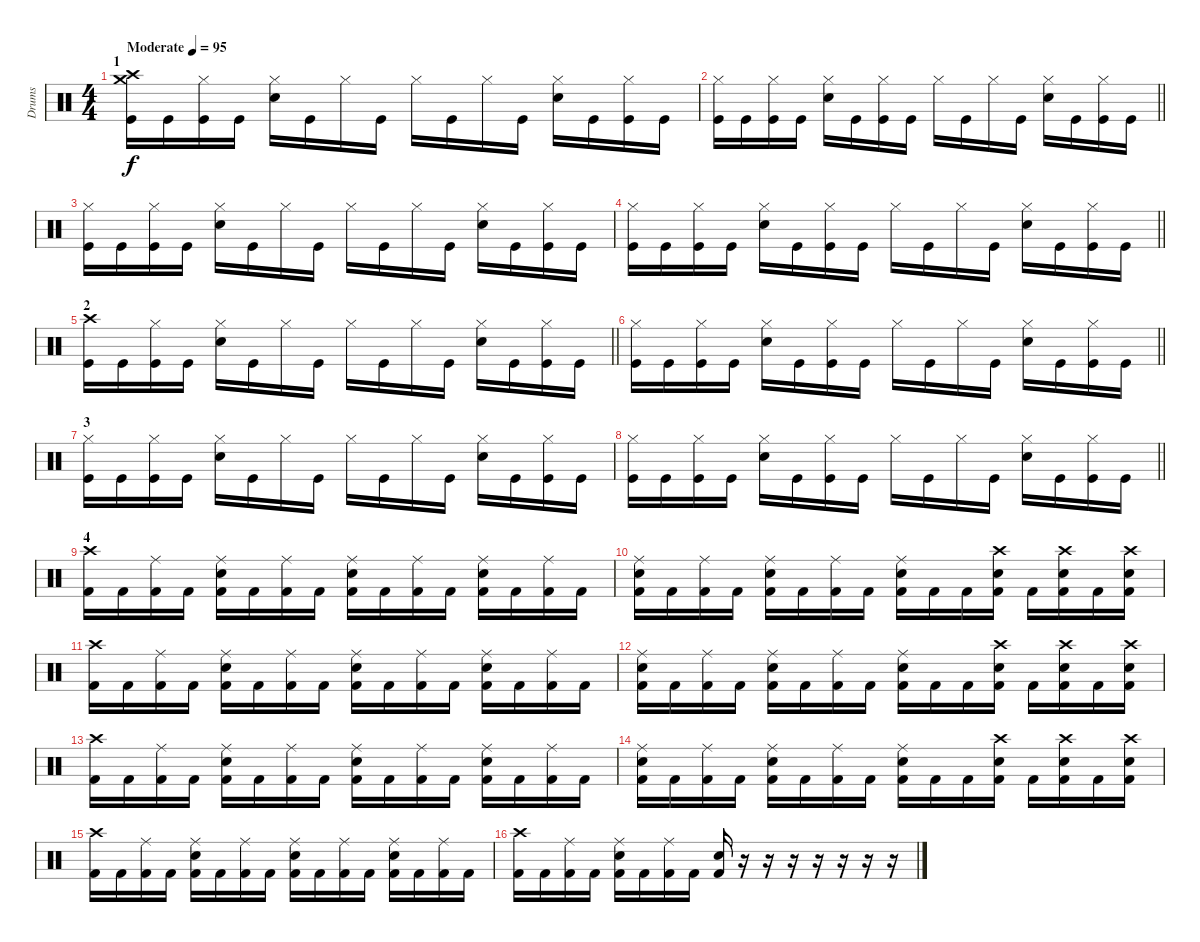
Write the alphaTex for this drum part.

\track ("Drums" "Drums") {instrument percussion}
\staff {score}
\articulation defaults
\ts (4 4)
\section ("" "1")
\tempo (95 "Moderate")
\clef neutral
\ks c
("Crash medium (hit)" "Crash high (hit)" "Kick (hit)").16{dy f} "Kick (hit)".16 ("Hi-Hat (closed)" "Kick (hit)").16 "Kick (hit)".16 ("Hi-Hat (closed)" "Snare (hit) 2").16 "Kick (hit)".16 "Hi-Hat (closed)".16 "Kick (hit)".16 "Hi-Hat (closed)".16 "Kick (hit)".16 "Hi-Hat (closed)".16 "Kick (hit)".16 ("Hi-Hat (closed)" "Snare (hit) 2").16 "Kick (hit)".16 ("Hi-Hat (closed)" "Kick (hit)").16 "Kick (hit)".16 |
\barLineRight lightlight
("Hi-Hat (closed)" "Kick (hit)").16 "Kick (hit)".16 ("Hi-Hat (closed)" "Kick (hit)").16 "Kick (hit)".16 ("Hi-Hat (closed)" "Snare (hit) 2").16 "Kick (hit)".16 ("Hi-Hat (closed)" "Kick (hit)").16 "Kick (hit)".16 "Hi-Hat (closed)".16 "Kick (hit)".16 "Hi-Hat (closed)".16 "Kick (hit)".16 ("Hi-Hat (closed)" "Snare (hit) 2").16 "Kick (hit)".16 ("Hi-Hat (closed)" "Kick (hit)").16 "Kick (hit)".16 |
("Hi-Hat (closed)" "Kick (hit)").16 "Kick (hit)".16 ("Hi-Hat (closed)" "Kick (hit)").16 "Kick (hit)".16 ("Hi-Hat (closed)" "Snare (hit) 2").16 "Kick (hit)".16 "Hi-Hat (closed)".16 "Kick (hit)".16 "Hi-Hat (closed)".16 "Kick (hit)".16 "Hi-Hat (closed)".16 "Kick (hit)".16 ("Hi-Hat (closed)" "Snare (hit) 2").16 "Kick (hit)".16 ("Hi-Hat (closed)" "Kick (hit)").16 "Kick (hit)".16 |
\barLineRight lightlight
("Hi-Hat (closed)" "Kick (hit)").16 "Kick (hit)".16 ("Hi-Hat (closed)" "Kick (hit)").16 "Kick (hit)".16 ("Hi-Hat (closed)" "Snare (hit) 2").16 "Kick (hit)".16 ("Hi-Hat (closed)" "Kick (hit)").16 "Kick (hit)".16 "Hi-Hat (closed)".16 "Kick (hit)".16 "Hi-Hat (closed)".16 "Kick (hit)".16 ("Hi-Hat (closed)" "Snare (hit) 2").16 "Kick (hit)".16 ("Hi-Hat (closed)" "Kick (hit)").16 "Kick (hit)".16 |
\section ("" "2")
\barLineRight lightlight
("Crash high (hit)" "Kick (hit)").16 "Kick (hit)".16 ("Hi-Hat (closed)" "Kick (hit)").16 "Kick (hit)".16 ("Hi-Hat (closed)" "Snare (hit) 2").16 "Kick (hit)".16 "Hi-Hat (closed)".16 "Kick (hit)".16 "Hi-Hat (closed)".16 "Kick (hit)".16 "Hi-Hat (closed)".16 "Kick (hit)".16 ("Hi-Hat (closed)" "Snare (hit) 2").16 "Kick (hit)".16 ("Hi-Hat (closed)" "Kick (hit)").16 "Kick (hit)".16 |
\barLineRight lightlight
("Hi-Hat (closed)" "Kick (hit)").16 "Kick (hit)".16 ("Hi-Hat (closed)" "Kick (hit)").16 "Kick (hit)".16 ("Hi-Hat (closed)" "Snare (hit) 2").16 "Kick (hit)".16 ("Hi-Hat (closed)" "Kick (hit)").16 "Kick (hit)".16 "Hi-Hat (closed)".16 "Kick (hit)".16 "Hi-Hat (closed)".16 "Kick (hit)".16 ("Hi-Hat (closed)" "Snare (hit) 2").16 "Kick (hit)".16 ("Hi-Hat (closed)" "Kick (hit)").16 "Kick (hit)".16 |
\section ("" "3")
("Hi-Hat (closed)" "Kick (hit)").16 "Kick (hit)".16 ("Hi-Hat (closed)" "Kick (hit)").16 "Kick (hit)".16 ("Hi-Hat (closed)" "Snare (hit) 2").16 "Kick (hit)".16 "Hi-Hat (closed)".16 "Kick (hit)".16 "Hi-Hat (closed)".16 "Kick (hit)".16 "Hi-Hat (closed)".16 "Kick (hit)".16 ("Hi-Hat (closed)" "Snare (hit) 2").16 "Kick (hit)".16 ("Hi-Hat (closed)" "Kick (hit)").16 "Kick (hit)".16 |
\barLineRight lightlight
("Hi-Hat (closed)" "Kick (hit)").16 "Kick (hit)".16 ("Hi-Hat (closed)" "Kick (hit)").16 "Kick (hit)".16 ("Hi-Hat (closed)" "Snare (hit) 2").16 "Kick (hit)".16 ("Hi-Hat (closed)" "Kick (hit)").16 "Kick (hit)".16 "Hi-Hat (closed)".16 "Kick (hit)".16 "Hi-Hat (closed)".16 "Kick (hit)".16 ("Hi-Hat (closed)" "Snare (hit) 2").16 "Kick (hit)".16 ("Hi-Hat (closed)" "Kick (hit)").16 "Kick (hit)".16 |
\section ("" "4")
("Crash high (hit)" "Kick (hit) 2").16 "Kick (hit) 2".16 ("Ride (middle)" "Kick (hit) 2").16 "Kick (hit) 2".16 ("Ride (middle)" "Snare (hit) 2" "Kick (hit) 2").16 "Kick (hit) 2".16 ("Ride (middle)" "Kick (hit) 2").16 "Kick (hit) 2".16 ("Ride (middle)" "Snare (hit) 2" "Kick (hit) 2").16 "Kick (hit) 2".16 ("Ride (middle)" "Kick (hit) 2").16 "Kick (hit) 2".16 ("Ride (middle)" "Snare (hit) 2" "Kick (hit) 2").16 "Kick (hit) 2".16 ("Ride (middle)" "Kick (hit) 2").16 "Kick (hit) 2".16 |
("Ride (middle)" "Snare (hit) 2" "Kick (hit) 2").16 "Kick (hit) 2".16 ("Ride (middle)" "Kick (hit) 2").16 "Kick (hit) 2".16 ("Ride (middle)" "Snare (hit) 2" "Kick (hit) 2").16 "Kick (hit) 2".16 ("Ride (middle)" "Kick (hit) 2").16 "Kick (hit) 2".16 ("Ride (middle)" "Snare (hit) 2" "Kick (hit) 2").16 "Kick (hit) 2".16 "Kick (hit) 2".16 ("Crash high (hit)" "Snare (hit) 2" "Kick (hit) 2").16 "Kick (hit) 2".16 ("Crash high (hit)" "Snare (hit) 2" "Kick (hit) 2").16 "Kick (hit) 2".16 ("Crash high (hit)" "Snare (hit) 2" "Kick (hit) 2").16 |
("Crash high (hit)" "Kick (hit) 2").16 "Kick (hit) 2".16 ("Ride (middle)" "Kick (hit) 2").16 "Kick (hit) 2".16 ("Ride (middle)" "Snare (hit) 2" "Kick (hit) 2").16 "Kick (hit) 2".16 ("Ride (middle)" "Kick (hit) 2").16 "Kick (hit) 2".16 ("Ride (middle)" "Snare (hit) 2" "Kick (hit) 2").16 "Kick (hit) 2".16 ("Ride (middle)" "Kick (hit) 2").16 "Kick (hit) 2".16 ("Ride (middle)" "Snare (hit) 2" "Kick (hit) 2").16 "Kick (hit) 2".16 ("Ride (middle)" "Kick (hit) 2").16 "Kick (hit) 2".16 |
("Ride (middle)" "Snare (hit) 2" "Kick (hit) 2").16 "Kick (hit) 2".16 ("Ride (middle)" "Kick (hit) 2").16 "Kick (hit) 2".16 ("Ride (middle)" "Snare (hit) 2" "Kick (hit) 2").16 "Kick (hit) 2".16 ("Ride (middle)" "Kick (hit) 2").16 "Kick (hit) 2".16 ("Ride (middle)" "Snare (hit) 2" "Kick (hit) 2").16 "Kick (hit) 2".16 "Kick (hit) 2".16 ("Crash high (hit)" "Snare (hit) 2" "Kick (hit) 2").16 "Kick (hit) 2".16 ("Crash high (hit)" "Snare (hit) 2" "Kick (hit) 2").16 "Kick (hit) 2".16 ("Crash high (hit)" "Snare (hit) 2" "Kick (hit) 2").16 |
("Crash high (hit)" "Kick (hit) 2").16 "Kick (hit) 2".16 ("Ride (middle)" "Kick (hit) 2").16 "Kick (hit) 2".16 ("Ride (middle)" "Snare (hit) 2" "Kick (hit) 2").16 "Kick (hit) 2".16 ("Ride (middle)" "Kick (hit) 2").16 "Kick (hit) 2".16 ("Ride (middle)" "Snare (hit) 2" "Kick (hit) 2").16 "Kick (hit) 2".16 ("Ride (middle)" "Kick (hit) 2").16 "Kick (hit) 2".16 ("Ride (middle)" "Snare (hit) 2" "Kick (hit) 2").16 "Kick (hit) 2".16 ("Ride (middle)" "Kick (hit) 2").16 "Kick (hit) 2".16 |
("Ride (middle)" "Snare (hit) 2" "Kick (hit) 2").16 "Kick (hit) 2".16 ("Ride (middle)" "Kick (hit) 2").16 "Kick (hit) 2".16 ("Ride (middle)" "Snare (hit) 2" "Kick (hit) 2").16 "Kick (hit) 2".16 ("Ride (middle)" "Kick (hit) 2").16 "Kick (hit) 2".16 ("Ride (middle)" "Snare (hit) 2" "Kick (hit) 2").16 "Kick (hit) 2".16 "Kick (hit) 2".16 ("Crash high (hit)" "Snare (hit) 2" "Kick (hit) 2").16 "Kick (hit) 2".16 ("Crash high (hit)" "Snare (hit) 2" "Kick (hit) 2").16 "Kick (hit) 2".16 ("Crash high (hit)" "Snare (hit) 2" "Kick (hit) 2").16 |
("Crash high (hit)" "Kick (hit) 2").16 "Kick (hit) 2".16 ("Ride (middle)" "Kick (hit) 2").16 "Kick (hit) 2".16 ("Ride (middle)" "Snare (hit) 2" "Kick (hit) 2").16 "Kick (hit) 2".16 ("Ride (middle)" "Kick (hit) 2").16 "Kick (hit) 2".16 ("Ride (middle)" "Snare (hit) 2" "Kick (hit) 2").16 "Kick (hit) 2".16 ("Ride (middle)" "Kick (hit) 2").16 "Kick (hit) 2".16 ("Ride (middle)" "Snare (hit) 2" "Kick (hit) 2").16 "Kick (hit) 2".16 ("Ride (middle)" "Kick (hit) 2").16 "Kick (hit) 2".16 |
("Crash high (hit)" "Kick (hit) 2").16 "Kick (hit) 2".16 ("Ride (middle)" "Kick (hit) 2").16 "Kick (hit) 2".16 ("Ride (middle)" "Snare (hit) 2" "Kick (hit) 2").16 "Kick (hit) 2".16 ("Ride (middle)" "Kick (hit) 2").16 "Kick (hit) 2".16 ("Snare (hit) 2" "Kick (hit) 2").16 r.16 r.16 r.16 r.16 r.16 r.16 r.16
